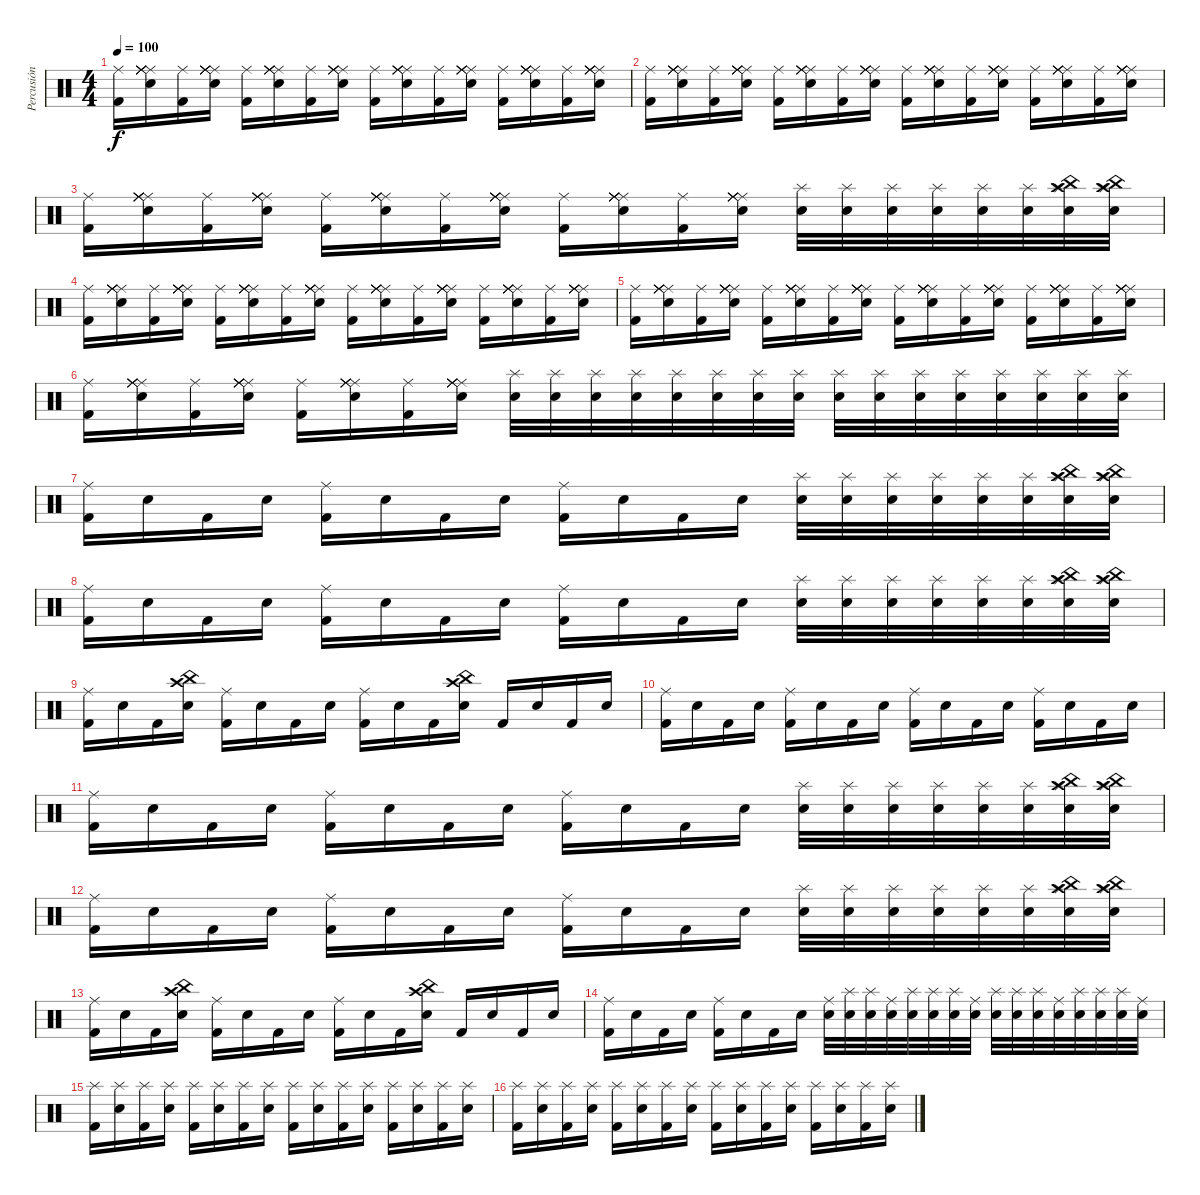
\track ("Percusión" "Percusión") {instrument percussion}
\staff {score}
\articulation defaults
\ts (4 4)
\tempo 100
\clef neutral
\ks c
("Kick (hit) 2" "Ride (middle)").16{dy f} ("Snare (hit) 2" "Ride (middle)" "Ride (middle)" "Ride (middle)" "Ride (middle)" "Ride (middle)").16 ("Kick (hit) 2" "Ride (middle)").16 ("Snare (hit) 2" "Ride (middle)" "Ride (middle)" "Ride (middle)" "Ride (middle)" "Ride (middle)").16 ("Kick (hit) 2" "Ride (middle)").16 ("Snare (hit) 2" "Ride (middle)" "Ride (middle)" "Ride (middle)" "Ride (middle)" "Ride (middle)").16 ("Kick (hit) 2" "Ride (middle)").16 ("Snare (hit) 2" "Ride (middle)" "Ride (middle)" "Ride (middle)" "Ride (middle)" "Ride (middle)").16 ("Kick (hit) 2" "Ride (middle)").16 ("Snare (hit) 2" "Ride (middle)" "Ride (middle)" "Ride (middle)" "Ride (middle)" "Ride (middle)").16 ("Kick (hit) 2" "Ride (middle)").16 ("Snare (hit) 2" "Ride (middle)" "Ride (middle)" "Ride (middle)" "Ride (middle)" "Ride (middle)").16 ("Kick (hit) 2" "Ride (middle)").16 ("Snare (hit) 2" "Ride (middle)" "Ride (middle)" "Ride (middle)" "Ride (middle)" "Ride (middle)").16 ("Kick (hit) 2" "Ride (middle)").16 ("Snare (hit) 2" "Ride (middle)" "Ride (middle)" "Ride (middle)" "Ride (middle)" "Ride (middle)").16 |
("Kick (hit) 2" "Ride (middle)").16 ("Snare (hit) 2" "Ride (middle)" "Ride (middle)" "Ride (middle)" "Ride (middle)" "Ride (middle)").16 ("Kick (hit) 2" "Ride (middle)").16 ("Snare (hit) 2" "Ride (middle)" "Ride (middle)" "Ride (middle)" "Ride (middle)" "Ride (middle)").16 ("Kick (hit) 2" "Ride (middle)").16 ("Snare (hit) 2" "Ride (middle)" "Ride (middle)" "Ride (middle)" "Ride (middle)" "Ride (middle)").16 ("Kick (hit) 2" "Ride (middle)").16 ("Snare (hit) 2" "Ride (middle)" "Ride (middle)" "Ride (middle)" "Ride (middle)" "Ride (middle)").16 ("Kick (hit) 2" "Ride (middle)").16 ("Snare (hit) 2" "Ride (middle)" "Ride (middle)" "Ride (middle)" "Ride (middle)" "Ride (middle)").16 ("Kick (hit) 2" "Ride (middle)").16 ("Snare (hit) 2" "Ride (middle)" "Ride (middle)" "Ride (middle)" "Ride (middle)" "Ride (middle)").16 ("Kick (hit) 2" "Ride (middle)").16 ("Snare (hit) 2" "Ride (middle)" "Ride (middle)" "Ride (middle)" "Ride (middle)" "Ride (middle)").16 ("Kick (hit) 2" "Ride (middle)").16 ("Snare (hit) 2" "Ride (middle)" "Ride (middle)" "Ride (middle)" "Ride (middle)" "Ride (middle)").16 |
("Kick (hit) 2" "Ride (middle)").16 ("Snare (hit) 2" "Ride (middle)" "Ride (middle)" "Ride (middle)" "Ride (middle)" "Ride (middle)").16 ("Kick (hit) 2" "Ride (middle)").16 ("Snare (hit) 2" "Ride (middle)" "Ride (middle)" "Ride (middle)" "Ride (middle)" "Ride (middle)").16 ("Kick (hit) 2" "Ride (middle)").16 ("Snare (hit) 2" "Ride (middle)" "Ride (middle)" "Ride (middle)" "Ride (middle)" "Ride (middle)").16 ("Kick (hit) 2" "Ride (middle)").16 ("Snare (hit) 2" "Ride (middle)" "Ride (middle)" "Ride (middle)" "Ride (middle)" "Ride (middle)").16 ("Kick (hit) 2" "Ride (middle)").16 ("Snare (hit) 2" "Ride (middle)" "Ride (middle)" "Ride (middle)" "Ride (middle)" "Ride (middle)").16 ("Kick (hit) 2" "Ride (middle)").16 ("Snare (hit) 2" "Ride (middle)" "Ride (middle)" "Ride (middle)" "Ride (middle)" "Ride (middle)").16 ("Snare (hit) 2" "Splash (hit)").32 ("Electric Snare (hit)" "Splash (hit)").32 ("Snare (hit) 2" "Splash (hit)").32 ("Electric Snare (hit)" "Splash (hit)").32 ("Snare (hit) 2" "Splash (hit)").32 ("Electric Snare (hit)" "Splash (hit)").32 ("Snare (hit) 2" "Crash high (hit)" "China (hit)" "Splash (hit)").32 ("Electric Snare (hit)" "Crash high (hit)" "China (hit)" "Splash (hit)").32 |
("Kick (hit) 2" "Ride (middle)").16 ("Snare (hit) 2" "Ride (middle)" "Ride (middle)" "Ride (middle)" "Ride (middle)" "Ride (middle)").16 ("Kick (hit) 2" "Ride (middle)").16 ("Snare (hit) 2" "Ride (middle)" "Ride (middle)" "Ride (middle)" "Ride (middle)" "Ride (middle)").16 ("Kick (hit) 2" "Ride (middle)").16 ("Snare (hit) 2" "Ride (middle)" "Ride (middle)" "Ride (middle)" "Ride (middle)" "Ride (middle)").16 ("Kick (hit) 2" "Ride (middle)").16 ("Snare (hit) 2" "Ride (middle)" "Ride (middle)" "Ride (middle)" "Ride (middle)" "Ride (middle)").16 ("Kick (hit) 2" "Ride (middle)").16 ("Snare (hit) 2" "Ride (middle)" "Ride (middle)" "Ride (middle)" "Ride (middle)" "Ride (middle)").16 ("Kick (hit) 2" "Ride (middle)").16 ("Snare (hit) 2" "Ride (middle)" "Ride (middle)" "Ride (middle)" "Ride (middle)" "Ride (middle)").16 ("Kick (hit) 2" "Ride (middle)").16 ("Snare (hit) 2" "Ride (middle)" "Ride (middle)" "Ride (middle)" "Ride (middle)" "Ride (middle)").16 ("Kick (hit) 2" "Ride (middle)").16 ("Snare (hit) 2" "Ride (middle)" "Ride (middle)" "Ride (middle)" "Ride (middle)" "Ride (middle)").16 |
("Kick (hit) 2" "Ride (middle)").16 ("Snare (hit) 2" "Ride (middle)" "Ride (middle)" "Ride (middle)" "Ride (middle)" "Ride (middle)").16 ("Kick (hit) 2" "Ride (middle)").16 ("Snare (hit) 2" "Ride (middle)" "Ride (middle)" "Ride (middle)" "Ride (middle)" "Ride (middle)").16 ("Kick (hit) 2" "Ride (middle)").16 ("Snare (hit) 2" "Ride (middle)" "Ride (middle)" "Ride (middle)" "Ride (middle)" "Ride (middle)").16 ("Kick (hit) 2" "Ride (middle)").16 ("Snare (hit) 2" "Ride (middle)" "Ride (middle)" "Ride (middle)" "Ride (middle)" "Ride (middle)").16 ("Kick (hit) 2" "Ride (middle)").16 ("Snare (hit) 2" "Ride (middle)" "Ride (middle)" "Ride (middle)" "Ride (middle)" "Ride (middle)").16 ("Kick (hit) 2" "Ride (middle)").16 ("Snare (hit) 2" "Ride (middle)" "Ride (middle)" "Ride (middle)" "Ride (middle)" "Ride (middle)").16 ("Kick (hit) 2" "Ride (middle)").16 ("Snare (hit) 2" "Ride (middle)" "Ride (middle)" "Ride (middle)" "Ride (middle)" "Ride (middle)").16 ("Kick (hit) 2" "Ride (middle)").16 ("Snare (hit) 2" "Ride (middle)" "Ride (middle)" "Ride (middle)" "Ride (middle)" "Ride (middle)").16 |
("Kick (hit) 2" "Ride (middle)").16 ("Snare (hit) 2" "Ride (middle)" "Ride (middle)" "Ride (middle)" "Ride (middle)" "Ride (middle)").16 ("Kick (hit) 2" "Ride (middle)").16 ("Snare (hit) 2" "Ride (middle)" "Ride (middle)" "Ride (middle)" "Ride (middle)" "Ride (middle)").16 ("Kick (hit) 2" "Ride (middle)").16 ("Snare (hit) 2" "Ride (middle)" "Ride (middle)" "Ride (middle)" "Ride (middle)" "Ride (middle)").16 ("Kick (hit) 2" "Ride (middle)").16 ("Snare (hit) 2" "Ride (middle)" "Ride (middle)" "Ride (middle)" "Ride (middle)" "Ride (middle)").16 ("Snare (hit) 2" "Splash (hit)").32 ("Electric Snare (hit)" "Splash (hit)").32 ("Snare (hit) 2" "Splash (hit)").32 ("Electric Snare (hit)" "Splash (hit)").32 ("Snare (hit) 2" "Splash (hit)").32 ("Electric Snare (hit)" "Splash (hit)").32 ("Snare (hit) 2" "Splash (hit)").32 ("Electric Snare (hit)" "Splash (hit)").32 ("Snare (hit) 2" "Splash (hit)").32 ("Electric Snare (hit)" "Splash (hit)").32 ("Snare (hit) 2" "Splash (hit)").32 ("Electric Snare (hit)" "Splash (hit)").32 ("Snare (hit) 2" "Splash (hit)").32 ("Electric Snare (hit)" "Splash (hit)").32 ("Snare (hit) 2" "Splash (hit)").32 ("Electric Snare (hit)" "Splash (hit)").32 |
("Kick (hit) 2" "Ride (middle)").16 "Snare (hit) 2".16 "Kick (hit) 2".16 "Snare (hit) 2".16 ("Kick (hit) 2" "Ride (middle)").16 "Snare (hit) 2".16 "Kick (hit) 2".16 "Snare (hit) 2".16 ("Kick (hit) 2" "Ride (middle)").16 "Snare (hit) 2".16 "Kick (hit) 2".16 "Snare (hit) 2".16 ("Snare (hit) 2" "Splash (hit)").32 ("Electric Snare (hit)" "Splash (hit)").32 ("Snare (hit) 2" "Splash (hit)").32 ("Electric Snare (hit)" "Splash (hit)").32 ("Snare (hit) 2" "Splash (hit)").32 ("Electric Snare (hit)" "Splash (hit)").32 ("Snare (hit) 2" "Crash high (hit)" "China (hit)" "Splash (hit)").32 ("Electric Snare (hit)" "Crash high (hit)" "China (hit)" "Splash (hit)").32 |
("Kick (hit) 2" "Ride (middle)").16 "Snare (hit) 2".16 "Kick (hit) 2".16 "Snare (hit) 2".16 ("Kick (hit) 2" "Ride (middle)").16 "Snare (hit) 2".16 "Kick (hit) 2".16 "Snare (hit) 2".16 ("Kick (hit) 2" "Ride (middle)").16 "Snare (hit) 2".16 "Kick (hit) 2".16 "Snare (hit) 2".16 ("Snare (hit) 2" "Splash (hit)").32 ("Electric Snare (hit)" "Splash (hit)").32 ("Snare (hit) 2" "Splash (hit)").32 ("Electric Snare (hit)" "Splash (hit)").32 ("Snare (hit) 2" "Splash (hit)").32 ("Electric Snare (hit)" "Splash (hit)").32 ("Snare (hit) 2" "Crash high (hit)" "China (hit)" "Splash (hit)").32 ("Electric Snare (hit)" "Crash high (hit)" "China (hit)" "Splash (hit)").32 |
("Kick (hit) 2" "Ride (middle)").16 "Snare (hit) 2".16 "Kick (hit) 2".16 ("Snare (hit) 2" "China (hit)" "Crash high (hit)").16 ("Kick (hit) 2" "Ride (middle)").16 "Snare (hit) 2".16 "Kick (hit) 2".16 "Snare (hit) 2".16 ("Kick (hit) 2" "Ride (middle)").16 "Snare (hit) 2".16 "Kick (hit) 2".16 ("Snare (hit) 2" "China (hit)" "Crash high (hit)").16 "Kick (hit) 2".16 "Snare (hit) 2".16 "Kick (hit) 2".16 "Snare (hit) 2".16 |
("Kick (hit) 2" "Ride (middle)").16 "Snare (hit) 2".16 "Kick (hit) 2".16 "Snare (hit) 2".16 ("Kick (hit) 2" "Ride (middle)").16 "Snare (hit) 2".16 "Kick (hit) 2".16 "Snare (hit) 2".16 ("Kick (hit) 2" "Ride (middle)").16 "Snare (hit) 2".16 "Kick (hit) 2".16 "Snare (hit) 2".16 ("Kick (hit) 2" "Ride (middle)").16 "Snare (hit) 2".16 "Kick (hit) 2".16 "Snare (hit) 2".16 |
("Kick (hit) 2" "Ride (middle)").16 "Snare (hit) 2".16 "Kick (hit) 2".16 "Snare (hit) 2".16 ("Kick (hit) 2" "Ride (middle)").16 "Snare (hit) 2".16 "Kick (hit) 2".16 "Snare (hit) 2".16 ("Kick (hit) 2" "Ride (middle)").16 "Snare (hit) 2".16 "Kick (hit) 2".16 "Snare (hit) 2".16 ("Snare (hit) 2" "Splash (hit)").32 ("Electric Snare (hit)" "Splash (hit)").32 ("Snare (hit) 2" "Splash (hit)").32 ("Electric Snare (hit)" "Splash (hit)").32 ("Snare (hit) 2" "Splash (hit)").32 ("Electric Snare (hit)" "Splash (hit)").32 ("Snare (hit) 2" "Crash high (hit)" "China (hit)" "Splash (hit)").32 ("Electric Snare (hit)" "Crash high (hit)" "China (hit)" "Splash (hit)").32 |
("Kick (hit) 2" "Ride (middle)").16 "Snare (hit) 2".16 "Kick (hit) 2".16 "Snare (hit) 2".16 ("Kick (hit) 2" "Ride (middle)").16 "Snare (hit) 2".16 "Kick (hit) 2".16 "Snare (hit) 2".16 ("Kick (hit) 2" "Ride (middle)").16 "Snare (hit) 2".16 "Kick (hit) 2".16 "Snare (hit) 2".16 ("Snare (hit) 2" "Splash (hit)").32 ("Electric Snare (hit)" "Splash (hit)").32 ("Snare (hit) 2" "Splash (hit)").32 ("Electric Snare (hit)" "Splash (hit)").32 ("Snare (hit) 2" "Splash (hit)").32 ("Electric Snare (hit)" "Splash (hit)").32 ("Snare (hit) 2" "Crash high (hit)" "China (hit)" "Splash (hit)").32 ("Electric Snare (hit)" "Crash high (hit)" "China (hit)" "Splash (hit)").32 |
("Kick (hit) 2" "Ride (middle)").16 "Snare (hit) 2".16 "Kick (hit) 2".16 ("Snare (hit) 2" "China (hit)" "Crash high (hit)").16 ("Kick (hit) 2" "Ride (middle)").16 "Snare (hit) 2".16 "Kick (hit) 2".16 "Snare (hit) 2".16 ("Kick (hit) 2" "Ride (middle)").16 "Snare (hit) 2".16 "Kick (hit) 2".16 ("Snare (hit) 2" "China (hit)" "Crash high (hit)").16 "Kick (hit) 2".16 "Snare (hit) 2".16 "Kick (hit) 2".16 "Snare (hit) 2".16 |
("Kick (hit) 2" "Ride (middle)").16 "Snare (hit) 2".16 "Kick (hit) 2".16 "Snare (hit) 2".16 ("Kick (hit) 2" "Ride (middle)").16 "Snare (hit) 2".16 "Kick (hit) 2".16 "Snare (hit) 2".16 ("Snare (hit) 2" "Ride (middle)").32 ("Electric Snare (hit)" "Splash (hit)").32 ("Snare (hit) 2" "Splash (hit)").32 ("Electric Snare (hit)" "Ride (middle)").32 ("Snare (hit) 2" "Splash (hit)").32 ("Electric Snare (hit)" "Splash (hit)").32 ("Snare (hit) 2" "Splash (hit)").32 ("Electric Snare (hit)" "Ride (middle)").32 ("Snare (hit) 2" "Splash (hit)").32 ("Electric Snare (hit)" "Splash (hit)").32 ("Snare (hit) 2" "Splash (hit)").32 ("Electric Snare (hit)" "Ride (middle)").32 ("Snare (hit) 2" "Splash (hit)").32 ("Electric Snare (hit)" "Splash (hit)").32 ("Snare (hit) 2" "Splash (hit)").32 ("Electric Snare (hit)" "Ride (middle)").32 |
("Kick (hit) 2" "Splash (hit)").16 ("Snare (hit) 2" "Splash (hit)").16 ("Kick (hit) 2" "Splash (hit)").16 ("Snare (hit) 2" "Splash (hit)").16 ("Kick (hit) 2" "Splash (hit)").16 ("Snare (hit) 2" "Splash (hit)").16 ("Kick (hit) 2" "Splash (hit)").16 ("Snare (hit) 2" "Splash (hit)").16 ("Kick (hit) 2" "Splash (hit)").16 ("Snare (hit) 2" "Splash (hit)").16 ("Kick (hit) 2" "Splash (hit)").16 ("Snare (hit) 2" "Splash (hit)").16 ("Kick (hit) 2" "Splash (hit)").16 ("Snare (hit) 2" "Splash (hit)").16 ("Kick (hit) 2" "Splash (hit)").16 ("Snare (hit) 2" "Splash (hit)").16 |
("Kick (hit) 2" "Splash (hit)").16 ("Snare (hit) 2" "Splash (hit)").16 ("Kick (hit) 2" "Splash (hit)").16 ("Snare (hit) 2" "Splash (hit)").16 ("Kick (hit) 2" "Splash (hit)").16 ("Snare (hit) 2" "Splash (hit)").16 ("Kick (hit) 2" "Splash (hit)").16 ("Snare (hit) 2" "Splash (hit)").16 ("Kick (hit) 2" "Splash (hit)").16 ("Snare (hit) 2" "Splash (hit)").16 ("Kick (hit) 2" "Splash (hit)").16 ("Snare (hit) 2" "Splash (hit)").16 ("Kick (hit) 2" "Splash (hit)").16 ("Snare (hit) 2" "Splash (hit)").16 ("Kick (hit) 2" "Splash (hit)").16 ("Snare (hit) 2" "Splash (hit)").16
